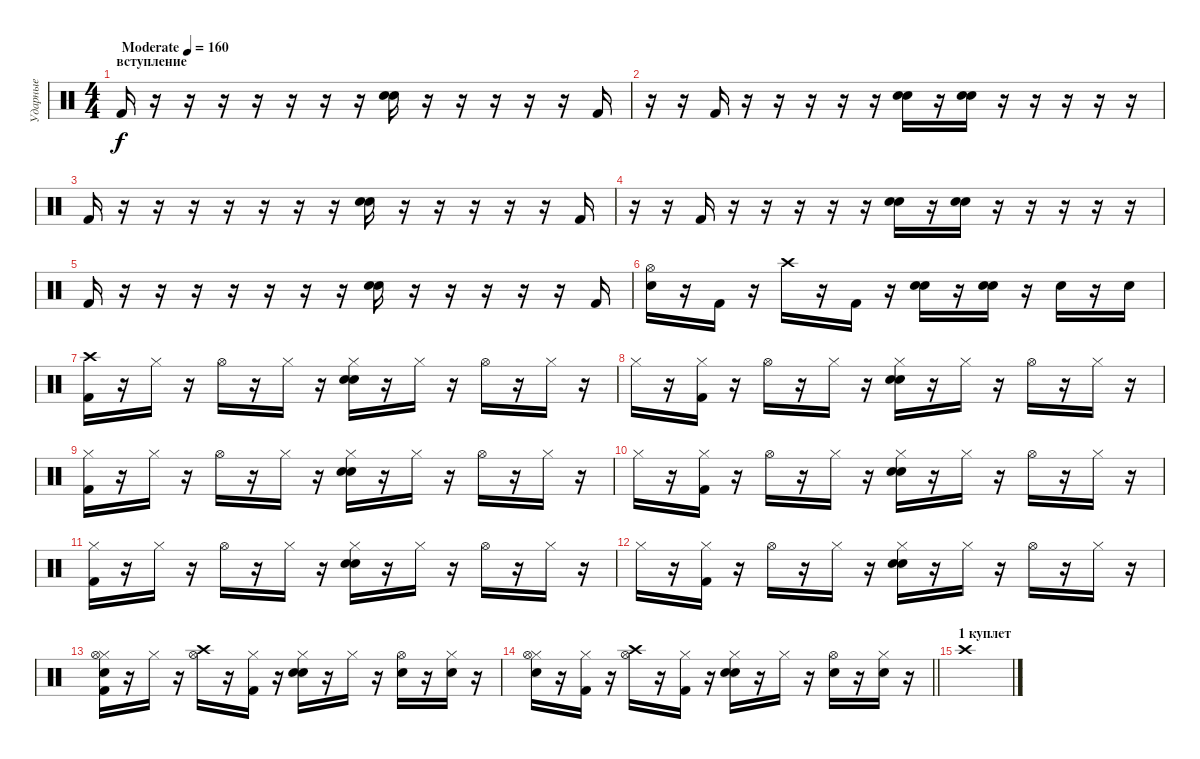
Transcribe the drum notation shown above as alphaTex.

\track ("Ударные" "Ударные") {instrument percussion}
\staff {score}
\articulation defaults
\ts (4 4)
\section ("" "вступление")
\tempo (160 "Moderate")
\clef neutral
\ks c "Kick (hit) 2".16{dy f}
r.16 r.16 r.16 r.16 r.16 r.16 r.16 ("Electric Snare (hit)" "Snare (hit) 2").16 r.16 r.16 r.16 r.16 r.16 "Kick (hit) 2".16 |
r.16 r.16 "Kick (hit) 2".16 r.16 r.16 r.16 r.16 r.16 ("Snare (hit) 2" "Electric Snare (hit)").16 r.16 ("Snare (hit) 2" "Electric Snare (hit)").16 r.16 r.16 r.16 r.16 r.16 |
"Kick (hit) 2".16 r.16 r.16 r.16 r.16 r.16 r.16 r.16 ("Electric Snare (hit)" "Snare (hit) 2").16 r.16 r.16 r.16 r.16 r.16 "Kick (hit) 2".16 |
r.16 r.16 "Kick (hit) 2".16 r.16 r.16 r.16 r.16 r.16 ("Snare (hit) 2" "Electric Snare (hit)").16 r.16 ("Snare (hit) 2" "Electric Snare (hit)").16 r.16 r.16 r.16 r.16 r.16 |
"Kick (hit) 2".16 r.16 r.16 r.16 r.16 r.16 r.16 r.16 ("Electric Snare (hit)" "Snare (hit) 2").16 r.16 r.16 r.16 r.16 r.16 "Kick (hit) 2".16 |
("Snare (hit) 2" "Hi-Hat (open)").16 r.16 "Kick (hit) 2".16 r.16 "Crash high (hit)".16 r.16 "Kick (hit) 2".16 r.16 ("Snare (hit) 2" "Electric Snare (hit)").16 r.16 ("Snare (hit) 2" "Electric Snare (hit)").16 r.16 "Electric Snare (hit)".16 r.16 "Electric Snare (hit)".16 |
("Kick (hit) 2" "Crash high (hit)").16 r.16 "Hi-Hat (closed)".16 r.16 "Hi-Hat (open)".16 r.16 "Hi-Hat (closed)".16 r.16 ("Hi-Hat (closed)" "Electric Snare (hit)" "Snare (hit) 2").16 r.16 "Hi-Hat (closed)".16 r.16 "Hi-Hat (open)".16 r.16 "Hi-Hat (closed)".16 r.16 |
"Hi-Hat (closed)".16 r.16 ("Hi-Hat (closed)" "Kick (hit) 2").16 r.16 "Hi-Hat (open)".16 r.16 "Hi-Hat (closed)".16 r.16 ("Hi-Hat (closed)" "Snare (hit) 2" "Electric Snare (hit)").16 r.16 "Hi-Hat (closed)".16 r.16 "Hi-Hat (open)".16 r.16 "Hi-Hat (closed)".16 r.16 |
("Kick (hit) 2" "Hi-Hat (closed)").16 r.16 "Hi-Hat (closed)".16 r.16 "Hi-Hat (open)".16 r.16 "Hi-Hat (closed)".16 r.16 ("Hi-Hat (closed)" "Electric Snare (hit)" "Snare (hit) 2").16 r.16 "Hi-Hat (closed)".16 r.16 "Hi-Hat (open)".16 r.16 "Hi-Hat (closed)".16 r.16 |
"Hi-Hat (closed)".16 r.16 ("Hi-Hat (closed)" "Kick (hit) 2").16 r.16 "Hi-Hat (open)".16 r.16 "Hi-Hat (closed)".16 r.16 ("Hi-Hat (closed)" "Snare (hit) 2" "Electric Snare (hit)").16 r.16 "Hi-Hat (closed)".16 r.16 "Hi-Hat (open)".16 r.16 "Hi-Hat (closed)".16 r.16 |
("Kick (hit) 2" "Hi-Hat (closed)").16 r.16 "Hi-Hat (closed)".16 r.16 "Hi-Hat (open)".16 r.16 "Hi-Hat (closed)".16 r.16 ("Hi-Hat (closed)" "Electric Snare (hit)" "Snare (hit) 2").16 r.16 "Hi-Hat (closed)".16 r.16 "Hi-Hat (open)".16 r.16 "Hi-Hat (closed)".16 r.16 |
"Hi-Hat (closed)".16 r.16 ("Hi-Hat (closed)" "Kick (hit) 2").16 r.16 "Hi-Hat (open)".16 r.16 "Hi-Hat (closed)".16 r.16 ("Hi-Hat (closed)" "Snare (hit) 2" "Electric Snare (hit)").16 r.16 "Hi-Hat (closed)".16 r.16 "Hi-Hat (open)".16 r.16 "Hi-Hat (closed)".16 r.16 |
("Kick (hit) 2" "Hi-Hat (closed)" "Hi-Hat (open)" "Snare (hit) 2").16 r.16 "Hi-Hat (closed)".16 r.16 ("Hi-Hat (open)" "Crash high (hit)").16 r.16 ("Hi-Hat (closed)" "Kick (hit) 2").16 r.16 ("Hi-Hat (closed)" "Electric Snare (hit)" "Snare (hit) 2").16 r.16 "Hi-Hat (closed)".16 r.16 ("Hi-Hat (open)" "Electric Snare (hit)").16 r.16 ("Hi-Hat (closed)" "Electric Snare (hit)").16 r.16 |
\barLineRight lightlight
("Hi-Hat (closed)" "Hi-Hat (open)" "Snare (hit) 2").16 r.16 ("Hi-Hat (closed)" "Kick (hit) 2").16 r.16 ("Hi-Hat (open)" "Crash high (hit)").16 r.16 ("Hi-Hat (closed)" "Kick (hit) 2").16 r.16 ("Hi-Hat (closed)" "Snare (hit) 2" "Electric Snare (hit)").16 r.16 "Hi-Hat (closed)".16 r.16 ("Hi-Hat (open)" "Electric Snare (hit)").16 r.16 ("Hi-Hat (closed)" "Electric Snare (hit)").16 r.16 |
\section ("" "1 куплет")
"Crash high (hit)".1
